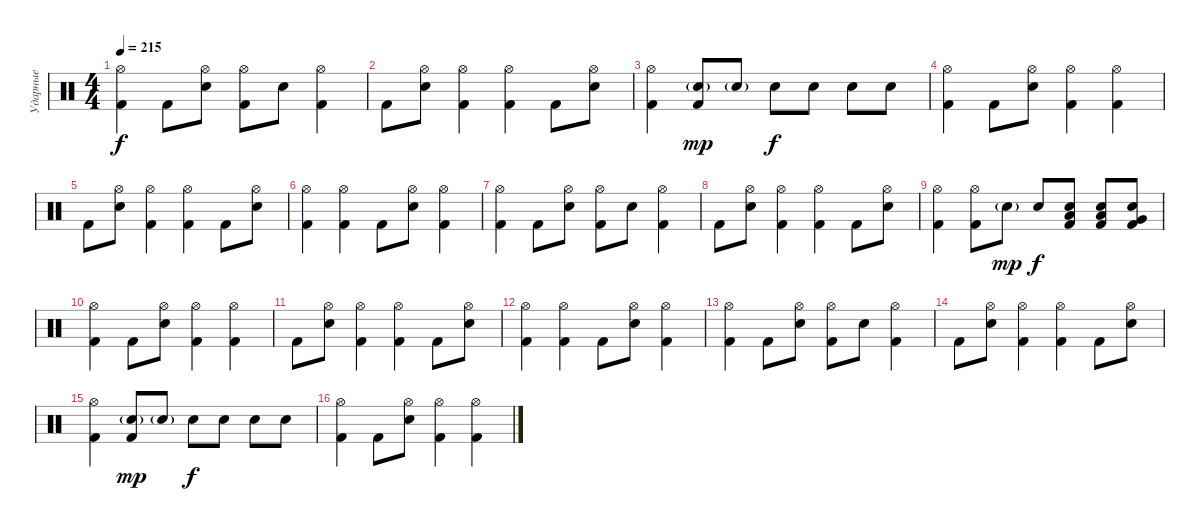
\track ("Ударные" "Ударные") {instrument percussion}
\staff {score}
\articulation defaults
\ts (4 4)
\tempo 215
\clef neutral
\ks c
("Hi-Hat (open)" "Kick (hit) 2").4{dy f} "Kick (hit) 2".8 ("Hi-Hat (open)" "Snare (hit) 2").8 ("Hi-Hat (open)" "Kick (hit) 2").8 "Snare (hit) 2".8 ("Hi-Hat (open)" "Kick (hit) 2").4 |
"Kick (hit) 2".8 ("Hi-Hat (open)" "Snare (hit) 2").8 ("Hi-Hat (open)" "Kick (hit) 2").4 ("Hi-Hat (open)" "Kick (hit) 2").4 "Kick (hit) 2".8 ("Hi-Hat (open)" "Snare (hit) 2").8 |
("Hi-Hat (open)" "Kick (hit) 2").4 ("Snare (hit) 2"{g} "Kick (hit) 2").8{dy mp} "Snare (hit) 2"{g}.8 "Snare (hit) 2".8{dy f} "Snare (hit) 2".8 "Snare (hit) 2".8 "Snare (hit) 2".8 |
("Hi-Hat (open)" "Kick (hit) 2").4 "Kick (hit) 2".8 ("Hi-Hat (open)" "Snare (hit) 2").8 ("Hi-Hat (open)" "Kick (hit) 2").4 ("Hi-Hat (open)" "Kick (hit) 2").4 |
"Kick (hit) 2".8 ("Hi-Hat (open)" "Snare (hit) 2").8 ("Hi-Hat (open)" "Kick (hit) 2").4 ("Hi-Hat (open)" "Kick (hit) 2").4 "Kick (hit) 2".8 ("Hi-Hat (open)" "Snare (hit) 2").8 |
("Hi-Hat (open)" "Kick (hit) 2").4 ("Hi-Hat (open)" "Kick (hit) 2").4 "Kick (hit) 2".8 ("Hi-Hat (open)" "Snare (hit) 2").8 ("Hi-Hat (open)" "Kick (hit) 2").4 |
("Hi-Hat (open)" "Kick (hit) 2").4 "Kick (hit) 2".8 ("Hi-Hat (open)" "Snare (hit) 2").8 ("Hi-Hat (open)" "Kick (hit) 2").8 "Snare (hit) 2".8 ("Hi-Hat (open)" "Kick (hit) 2").4 |
"Kick (hit) 2".8 ("Hi-Hat (open)" "Snare (hit) 2").8 ("Hi-Hat (open)" "Kick (hit) 2").4 ("Hi-Hat (open)" "Kick (hit) 2").4 "Kick (hit) 2".8 ("Hi-Hat (open)" "Snare (hit) 2").8 |
("Hi-Hat (open)" "Kick (hit) 2").4 ("Hi-Hat (open)" "Kick (hit) 2").8 "Snare (hit) 2"{g}.8{dy mp} "Snare (hit) 2".8{dy f} ("Low Floor Tom (hit)" "Snare (hit) 2" "Kick (hit) 2").8 ("Low Floor Tom (hit)" "Snare (hit) 2" "Kick (hit) 2").8 ("Very Low Tom (hit)" "Snare (hit) 2" "Kick (hit) 2").8 |
("Hi-Hat (open)" "Kick (hit) 2").4 "Kick (hit) 2".8 ("Hi-Hat (open)" "Snare (hit) 2").8 ("Hi-Hat (open)" "Kick (hit) 2").4 ("Hi-Hat (open)" "Kick (hit) 2").4 |
"Kick (hit) 2".8 ("Hi-Hat (open)" "Snare (hit) 2").8 ("Hi-Hat (open)" "Kick (hit) 2").4 ("Hi-Hat (open)" "Kick (hit) 2").4 "Kick (hit) 2".8 ("Hi-Hat (open)" "Snare (hit) 2").8 |
("Hi-Hat (open)" "Kick (hit) 2").4 ("Hi-Hat (open)" "Kick (hit) 2").4 "Kick (hit) 2".8 ("Hi-Hat (open)" "Snare (hit) 2").8 ("Hi-Hat (open)" "Kick (hit) 2").4 |
("Hi-Hat (open)" "Kick (hit) 2").4 "Kick (hit) 2".8 ("Hi-Hat (open)" "Snare (hit) 2").8 ("Hi-Hat (open)" "Kick (hit) 2").8 "Snare (hit) 2".8 ("Hi-Hat (open)" "Kick (hit) 2").4 |
"Kick (hit) 2".8 ("Hi-Hat (open)" "Snare (hit) 2").8 ("Hi-Hat (open)" "Kick (hit) 2").4 ("Hi-Hat (open)" "Kick (hit) 2").4 "Kick (hit) 2".8 ("Hi-Hat (open)" "Snare (hit) 2").8 |
("Hi-Hat (open)" "Kick (hit) 2").4 ("Snare (hit) 2"{g} "Kick (hit) 2").8{dy mp} "Snare (hit) 2"{g}.8 "Snare (hit) 2".8{dy f} "Snare (hit) 2".8 "Snare (hit) 2".8 "Snare (hit) 2".8 |
("Hi-Hat (open)" "Kick (hit) 2").4 "Kick (hit) 2".8 ("Hi-Hat (open)" "Snare (hit) 2").8 ("Hi-Hat (open)" "Kick (hit) 2").4 ("Hi-Hat (open)" "Kick (hit) 2").4
